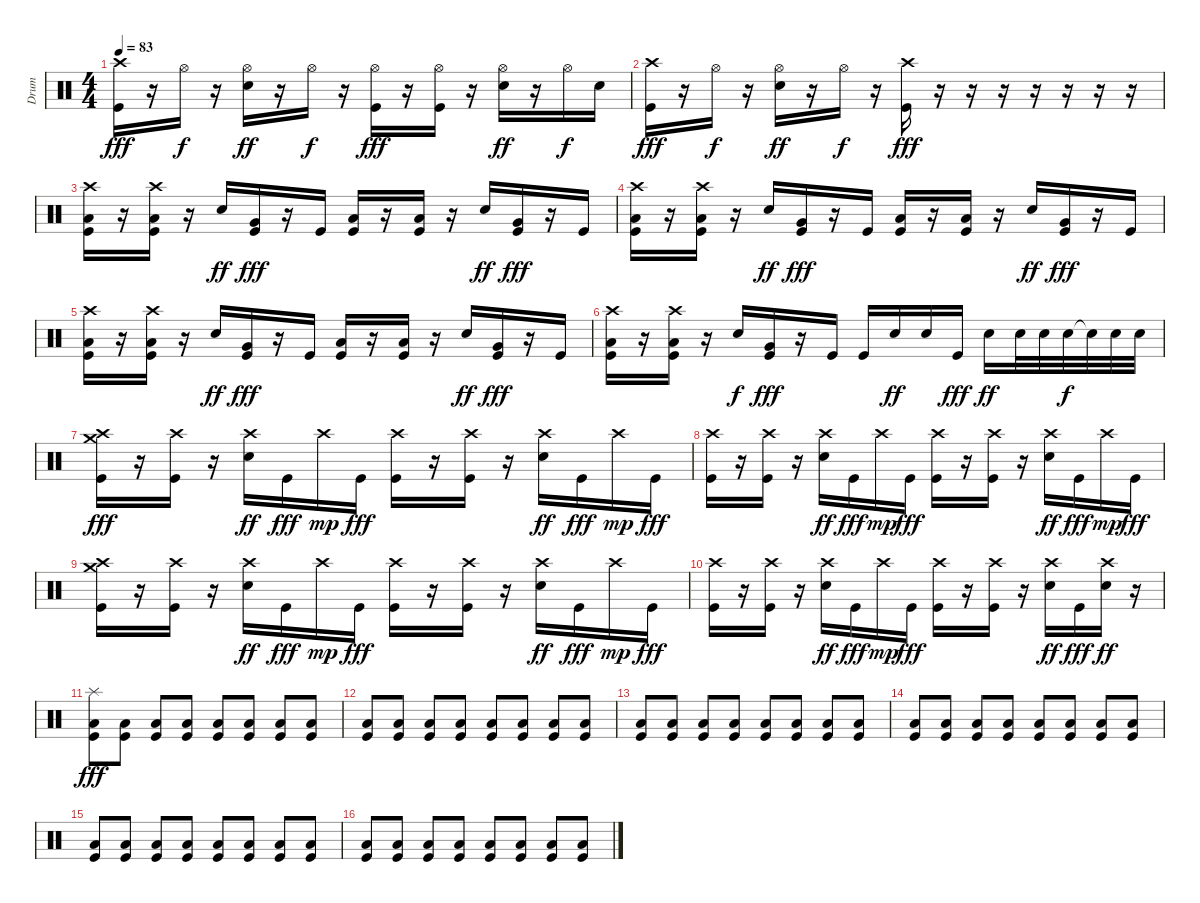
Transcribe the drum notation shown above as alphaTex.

\track ("Drum" "Drum") {instrument percussion}
\staff {score}
\articulation defaults
\ts (4 4)
\tempo 83
\clef neutral
\ks c
("Crash high (hit)" "Kick (hit)").16{dy fff} r.16 "Hi-Hat (open)".16{dy f} r.16 ("Hi-Hat (open)" "Snare (hit) 2").16{dy ff} r.16 "Hi-Hat (open)".16{dy f} r.16 ("Hi-Hat (open)" "Kick (hit)").16{dy fff} r.16 ("Hi-Hat (open)" "Kick (hit)").16 r.16 ("Hi-Hat (open)" "Snare (hit) 2").16{dy ff} r.16 "Hi-Hat (open)".16{dy f} "Snare (hit) 2".16 |
("Crash high (hit)" "Kick (hit)").16{dy fff} r.16 "Hi-Hat (open)".16{dy f} r.16 ("Hi-Hat (open)" "Snare (hit) 2").16{dy ff} r.16 "Hi-Hat (open)".16{dy f} r.16 ("Crash high (hit)" "Kick (hit)").16{dy fff} r.16 r.16 r.16 r.16 r.16 r.16 r.16 |
("Crash high (hit)" "Low Floor Tom (hit)" "Kick (hit)").16 r.16 ("Crash high (hit)" "Low Floor Tom (hit)" "Kick (hit)").16 r.16 "Snare (hit) 2".16{dy ff} ("Very Low Tom (hit)" "Kick (hit)").16{dy fff} r.16 "Kick (hit)".16 ("Low Floor Tom (hit)" "Kick (hit)").16 r.16 ("Low Floor Tom (hit)" "Kick (hit)").16 r.16 "Snare (hit) 2".16{dy ff} ("Very Low Tom (hit)" "Kick (hit)").16{dy fff} r.16 "Kick (hit)".16 |
("Crash high (hit)" "Low Floor Tom (hit)" "Kick (hit)").16 r.16 ("Crash high (hit)" "Low Floor Tom (hit)" "Kick (hit)").16 r.16 "Snare (hit) 2".16{dy ff} ("Very Low Tom (hit)" "Kick (hit)").16{dy fff} r.16 "Kick (hit)".16 ("Low Floor Tom (hit)" "Kick (hit)").16 r.16 ("Low Floor Tom (hit)" "Kick (hit)").16 r.16 "Snare (hit) 2".16{dy ff} ("Very Low Tom (hit)" "Kick (hit)").16{dy fff} r.16 "Kick (hit)".16 |
("Crash high (hit)" "Low Floor Tom (hit)" "Kick (hit)").16 r.16 ("Crash high (hit)" "Low Floor Tom (hit)" "Kick (hit)").16 r.16 "Snare (hit) 2".16{dy ff} ("Very Low Tom (hit)" "Kick (hit)").16{dy fff} r.16 "Kick (hit)".16 ("Low Floor Tom (hit)" "Kick (hit)").16 r.16 ("Low Floor Tom (hit)" "Kick (hit)").16 r.16 "Snare (hit) 2".16{dy ff} ("Very Low Tom (hit)" "Kick (hit)").16{dy fff} r.16 "Kick (hit)".16 |
("Crash high (hit)" "Low Floor Tom (hit)" "Kick (hit)").16 r.16 ("Crash high (hit)" "Low Floor Tom (hit)" "Kick (hit)").16 r.16 "Snare (hit) 2".16{dy f} ("Very Low Tom (hit)" "Kick (hit)").16{dy fff} r.16 "Kick (hit)".16 "Kick (hit)".16 "Snare (hit) 2".16{dy ff} "Snare (hit) 2".16 "Kick (hit)".16{dy fff} "Snare (hit) 2".16{dy ff} "Snare (hit) 2".32 "Snare (hit) 2".32 "Snare (hit) 2".32{dy f} "Snare (hit)"{t}.32 "Snare (hit) 2".32 "Snare (hit) 2".32 |
("Crash medium (hit)" "Crash high (hit)" "Kick (hit)").16{dy fff} r.16 ("Crash high (hit)" "Kick (hit)").16 r.16 ("Crash high (hit)" "Snare (hit) 2").16{dy ff} "Kick (hit)".16{dy fff} "Crash high (hit)".16{dy mp} "Kick (hit)".16{dy fff} ("Crash high (hit)" "Kick (hit)").16 r.16 ("Crash high (hit)" "Kick (hit)").16 r.16 ("Crash high (hit)" "Snare (hit) 2").16{dy ff} "Kick (hit)".16{dy fff} "Crash high (hit)".16{dy mp} "Kick (hit)".16{dy fff} |
("Crash high (hit)" "Kick (hit)").16 r.16 ("Crash high (hit)" "Kick (hit)").16 r.16 ("Crash high (hit)" "Snare (hit) 2").16{dy ff} "Kick (hit)".16{dy fff} "Crash high (hit)".16{dy mp} "Kick (hit)".16{dy fff} ("Crash high (hit)" "Kick (hit)").16 r.16 ("Crash high (hit)" "Kick (hit)").16 r.16 ("Crash high (hit)" "Snare (hit) 2").16{dy ff} "Kick (hit)".16{dy fff} "Crash high (hit)".16{dy mp} "Kick (hit)".16{dy fff} |
("Crash medium (hit)" "Crash high (hit)" "Kick (hit)").16 r.16 ("Crash high (hit)" "Kick (hit)").16 r.16 ("Crash high (hit)" "Snare (hit) 2").16{dy ff} "Kick (hit)".16{dy fff} "Crash high (hit)".16{dy mp} "Kick (hit)".16{dy fff} ("Crash high (hit)" "Kick (hit)").16 r.16 ("Crash high (hit)" "Kick (hit)").16 r.16 ("Crash high (hit)" "Snare (hit) 2").16{dy ff} "Kick (hit)".16{dy fff} "Crash high (hit)".16{dy mp} "Kick (hit)".16{dy fff} |
("Crash high (hit)" "Kick (hit)").16 r.16 ("Crash high (hit)" "Kick (hit)").16 r.16 ("Crash high (hit)" "Snare (hit) 2").16{dy ff} "Kick (hit)".16{dy fff} "Crash high (hit)".16{dy mp} "Kick (hit)".16{dy fff} ("Crash high (hit)" "Kick (hit)").16 r.16 ("Crash high (hit)" "Kick (hit)").16 r.16 ("Crash high (hit)" "Snare (hit) 2").16{dy ff} "Kick (hit)".16{dy fff volume 16} ("Crash high (hit)" "Snare (hit) 2").16{dy ff volume 13} r.16 |
("Splash (hit)" "Low Floor Tom (hit)" "Kick (hit)").8{dy fff volume 11} ("Low Floor Tom (hit)" "Kick (hit)").8 ("Low Floor Tom (hit)" "Kick (hit)").8 ("Low Floor Tom (hit)" "Kick (hit)").8 ("Low Floor Tom (hit)" "Kick (hit)").8 ("Low Floor Tom (hit)" "Kick (hit)").8 ("Low Floor Tom (hit)" "Kick (hit)").8 ("Low Floor Tom (hit)" "Kick (hit)").8 |
("Low Floor Tom (hit)" "Kick (hit)").8 ("Low Floor Tom (hit)" "Kick (hit)").8 ("Low Floor Tom (hit)" "Kick (hit)").8 ("Low Floor Tom (hit)" "Kick (hit)").8 ("Low Floor Tom (hit)" "Kick (hit)").8 ("Low Floor Tom (hit)" "Kick (hit)").8 ("Low Floor Tom (hit)" "Kick (hit)").8 ("Low Floor Tom (hit)" "Kick (hit)").8 |
("Low Floor Tom (hit)" "Kick (hit)").8 ("Low Floor Tom (hit)" "Kick (hit)").8 ("Low Floor Tom (hit)" "Kick (hit)").8 ("Low Floor Tom (hit)" "Kick (hit)").8 ("Low Floor Tom (hit)" "Kick (hit)").8 ("Low Floor Tom (hit)" "Kick (hit)").8 ("Low Floor Tom (hit)" "Kick (hit)").8 ("Low Floor Tom (hit)" "Kick (hit)").8 |
("Low Floor Tom (hit)" "Kick (hit)").8 ("Low Floor Tom (hit)" "Kick (hit)").8 ("Low Floor Tom (hit)" "Kick (hit)").8 ("Low Floor Tom (hit)" "Kick (hit)").8 ("Low Floor Tom (hit)" "Kick (hit)").8 ("Low Floor Tom (hit)" "Kick (hit)").8 ("Low Floor Tom (hit)" "Kick (hit)").8 ("Low Floor Tom (hit)" "Kick (hit)").8 |
("Low Floor Tom (hit)" "Kick (hit)").8 ("Low Floor Tom (hit)" "Kick (hit)").8 ("Low Floor Tom (hit)" "Kick (hit)").8 ("Low Floor Tom (hit)" "Kick (hit)").8 ("Low Floor Tom (hit)" "Kick (hit)").8 ("Low Floor Tom (hit)" "Kick (hit)").8 ("Low Floor Tom (hit)" "Kick (hit)").8 ("Low Floor Tom (hit)" "Kick (hit)").8 |
("Low Floor Tom (hit)" "Kick (hit)").8 ("Low Floor Tom (hit)" "Kick (hit)").8 ("Low Floor Tom (hit)" "Kick (hit)").8 ("Low Floor Tom (hit)" "Kick (hit)").8 ("Low Floor Tom (hit)" "Kick (hit)").8 ("Low Floor Tom (hit)" "Kick (hit)").8 ("Low Floor Tom (hit)" "Kick (hit)").8 ("Low Floor Tom (hit)" "Kick (hit)").8
